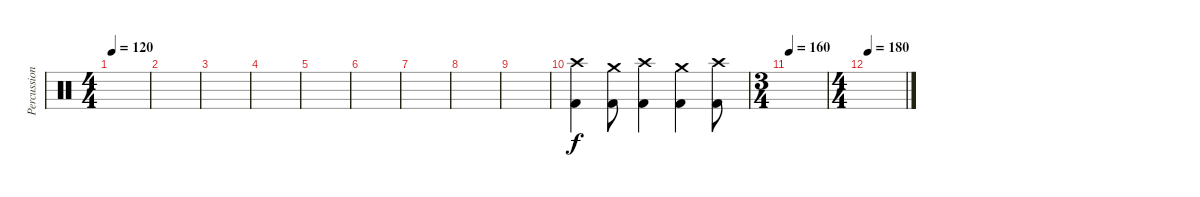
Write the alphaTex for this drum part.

\track ("Percussion" "Percussion") {instrument percussion}
\staff {score}
\articulation defaults
\ts (4 4)
\tempo 120
\clef neutral
\ks c
|
|
|
|
|
|
|
|
|
("Kick (hit) 2" "Crash high (hit)").4 ("Kick (hit) 2" "Crash medium (hit)").8 ("Kick (hit) 2" "Crash high (hit)").4 ("Kick (hit) 2" "Crash medium (hit)").4 ("Kick (hit) 2" "Crash high (hit)").8 |
\ts (3 4)
\tempo 160
|
\ts (4 4)
\tempo 180
